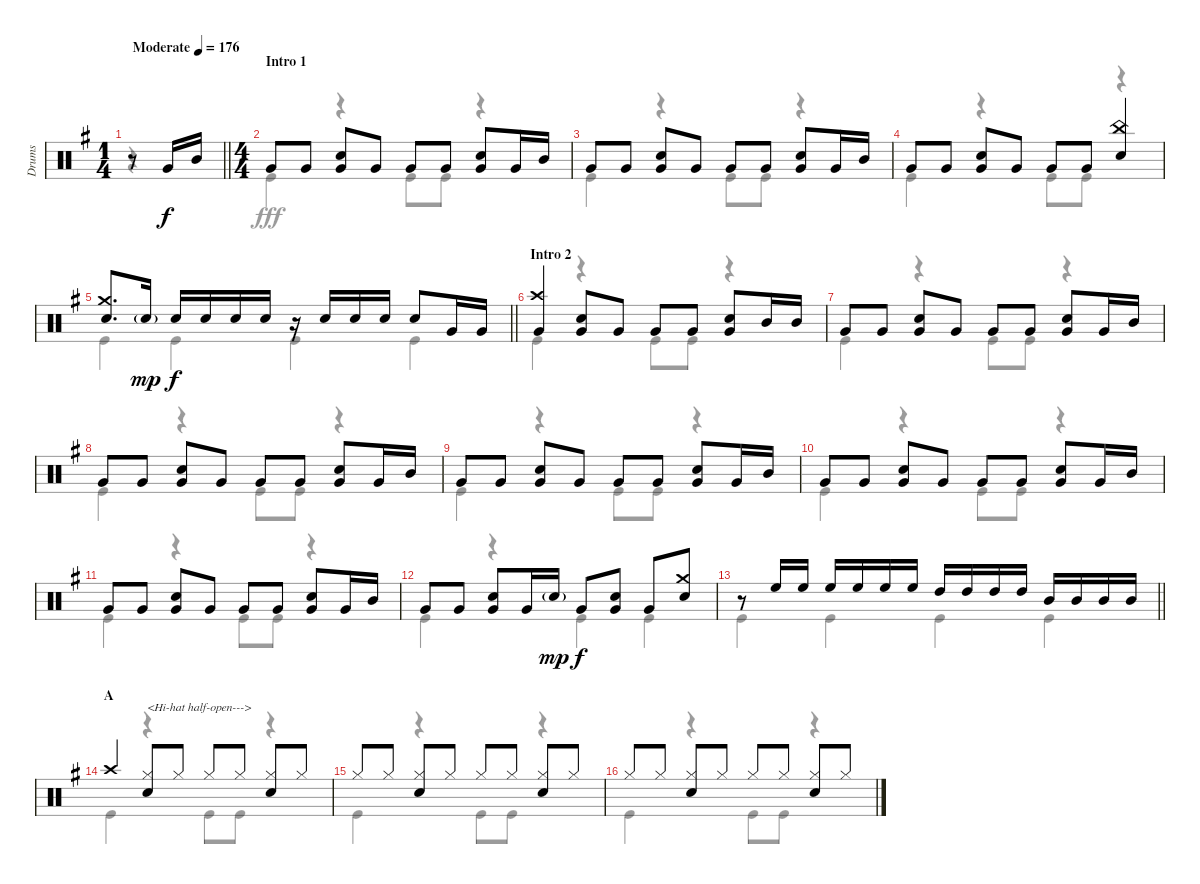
\track ("Drums" "Drums") {instrument percussion}
\staff {score}
\articulation defaults
\voice
\ts (1 4)
\tempo (176 "Moderate")
\clef neutral
\barLineRight lightlight
\ks g
r.8{dy f} "Very Low Tom (hit)".16 "Mid Tom (hit)".16 |
\ts (4 4)
\section ("" "Intro 1")
"Very Low Tom (hit)".8 "Very Low Tom (hit)".8 ("Very Low Tom (hit)" "Snare (hit) 2").8 "Very Low Tom (hit)".8 "Very Low Tom (hit)".8 "Very Low Tom (hit)".8 ("Very Low Tom (hit)" "Snare (hit) 2").8 "Very Low Tom (hit)".16 "Mid Tom (hit)".16 |
"Very Low Tom (hit)".8 "Very Low Tom (hit)".8 ("Very Low Tom (hit)" "Snare (hit) 2").8 "Very Low Tom (hit)".8 "Very Low Tom (hit)".8 "Very Low Tom (hit)".8 ("Very Low Tom (hit)" "Snare (hit) 2").8 "Very Low Tom (hit)".16 "Mid Tom (hit)".16 |
"Very Low Tom (hit)".8 "Very Low Tom (hit)".8 ("Snare (hit) 2" "Very Low Tom (hit)").8 "Very Low Tom (hit)".8 "Very Low Tom (hit)".8 "Very Low Tom (hit)".8 ("China (hit)" "Snare (hit) 2").4 |
\barLineRight lightlight
("Crash medium (hit)" "Snare (hit) 2").8{d} "Snare (hit) 2"{g}.16{dy mp} "Snare (hit) 2".16{dy f} "Snare (hit) 2".16 "Snare (hit) 2".16 "Snare (hit) 2".16 r.16 "Snare (hit) 2".16 "Snare (hit) 2".16 "Snare (hit) 2".16 "Snare (hit) 2".8 "Very Low Tom (hit)".16 "Very Low Tom (hit)".16 |
\section ("" "Intro 2")
("Crash high (hit)" "Very Low Tom (hit)").4 ("Snare (hit) 2" "Very Low Tom (hit)").8 "Very Low Tom (hit)".8 "Very Low Tom (hit)".8 "Very Low Tom (hit)".8 ("Snare (hit) 2" "Very Low Tom (hit)").8 "Mid Tom (hit)".16 "Mid Tom (hit)".16 |
"Very Low Tom (hit)".8 "Very Low Tom (hit)".8 ("Very Low Tom (hit)" "Snare (hit) 2").8 "Very Low Tom (hit)".8 "Very Low Tom (hit)".8 "Very Low Tom (hit)".8 ("Very Low Tom (hit)" "Snare (hit) 2").8 "Very Low Tom (hit)".16 "Mid Tom (hit)".16 |
"Very Low Tom (hit)".8 "Very Low Tom (hit)".8 ("Very Low Tom (hit)" "Snare (hit) 2").8 "Very Low Tom (hit)".8 "Very Low Tom (hit)".8 "Very Low Tom (hit)".8 ("Very Low Tom (hit)" "Snare (hit) 2").8 "Very Low Tom (hit)".16 "Mid Tom (hit)".16 |
"Very Low Tom (hit)".8 "Very Low Tom (hit)".8 ("Very Low Tom (hit)" "Snare (hit) 2").8 "Very Low Tom (hit)".8 "Very Low Tom (hit)".8 "Very Low Tom (hit)".8 ("Very Low Tom (hit)" "Snare (hit) 2").8 "Very Low Tom (hit)".16 "Mid Tom (hit)".16 |
"Very Low Tom (hit)".8 "Very Low Tom (hit)".8 ("Very Low Tom (hit)" "Snare (hit) 2").8 "Very Low Tom (hit)".8 "Very Low Tom (hit)".8 "Very Low Tom (hit)".8 ("Very Low Tom (hit)" "Snare (hit) 2").8 "Very Low Tom (hit)".16 "Mid Tom (hit)".16 |
"Very Low Tom (hit)".8 "Very Low Tom (hit)".8 ("Very Low Tom (hit)" "Snare (hit) 2").8 "Very Low Tom (hit)".8 "Very Low Tom (hit)".8 "Very Low Tom (hit)".8 ("Very Low Tom (hit)" "Snare (hit) 2").8 "Very Low Tom (hit)".16 "Mid Tom (hit)".16 |
"Very Low Tom (hit)".8 "Very Low Tom (hit)".8 ("Snare (hit) 2" "Very Low Tom (hit)").8 "Very Low Tom (hit)".16 "Snare (hit) 2"{g}.16{dy mp} "Very Low Tom (hit)".8{dy f} ("Very Low Tom (hit)" "Snare (hit) 2").8 "Very Low Tom (hit)".8 ("Snare (hit) 2" "Crash medium (hit)").8 |
\barLineRight lightlight
r.8 "High Floor Tom (hit)".16 "High Floor Tom (hit)".16 "High Floor Tom (hit)".16 "High Floor Tom (hit)".16 "High Floor Tom (hit)".16 "High Floor Tom (hit)".16 "High Tom (hit)".16 "High Tom (hit)".16 "High Tom (hit)".16 "High Tom (hit)".16 "Mid Tom (hit)".16 "Mid Tom (hit)".16 "Mid Tom (hit)".16 "Mid Tom (hit)".16 |
\section ("" "A")
"Crash high (hit)".4 ("Hi-Hat (closed)" "Snare (hit) 2").8{txt "<Hi-hat half-open--->"} "Hi-Hat (closed)".8 "Hi-Hat (closed)".8 "Hi-Hat (closed)".8 ("Hi-Hat (closed)" "Snare (hit) 2").8 "Hi-Hat (closed)".8 |
"Hi-Hat (closed)".8 "Hi-Hat (closed)".8 ("Hi-Hat (closed)" "Snare (hit) 2").8 "Hi-Hat (closed)".8 "Hi-Hat (closed)".8 "Hi-Hat (closed)".8 ("Hi-Hat (closed)" "Snare (hit) 2").8 "Hi-Hat (closed)".8 |
"Hi-Hat (closed)".8 "Hi-Hat (closed)".8 ("Hi-Hat (closed)" "Snare (hit) 2").8 "Hi-Hat (closed)".8 "Hi-Hat (closed)".8 "Hi-Hat (closed)".8 ("Hi-Hat (closed)" "Snare (hit) 2").8 "Hi-Hat (closed)".8
\voice
\clef neutral
\ottava regular
\simile none
\barLineRight lightlight
\ks g
r.4{dy fff} |
"Kick (hit)".4 r.4 "Kick (hit)".8 "Kick (hit)".8 r.4 |
"Kick (hit)".4 r.4 "Kick (hit)".8 "Kick (hit)".8 r.4 |
"Kick (hit)".4 r.4 "Kick (hit)".8 "Kick (hit)".8 r.4 |
\barLineRight lightlight "Kick (hit)".4 "Kick (hit)".4 "Kick (hit)".4 "Kick (hit)".4
|
"Kick (hit)".4 r.4 "Kick (hit)".8 "Kick (hit)".8 r.4 |
"Kick (hit)".4 r.4 "Kick (hit)".8 "Kick (hit)".8 r.4 |
"Kick (hit)".4 r.4 "Kick (hit)".8 "Kick (hit)".8 r.4 |
"Kick (hit)".4 r.4 "Kick (hit)".8 "Kick (hit)".8 r.4 |
"Kick (hit)".4 r.4 "Kick (hit)".8 "Kick (hit)".8 r.4 |
"Kick (hit)".4 r.4 "Kick (hit)".8 "Kick (hit)".8 r.4 |
"Kick (hit)".4 r.4 "Kick (hit)".4 "Kick (hit)".4 |
\barLineRight lightlight "Kick (hit)".4 "Kick (hit)".4 "Kick (hit)".4 "Kick (hit)".4
|
"Kick (hit)".4 r.4 "Kick (hit)".8 "Kick (hit)".8 r.4 |
"Kick (hit)".4 r.4 "Kick (hit)".8 "Kick (hit)".8 r.4 |
"Kick (hit)".4 r.4 "Kick (hit)".8 "Kick (hit)".8 r.4
